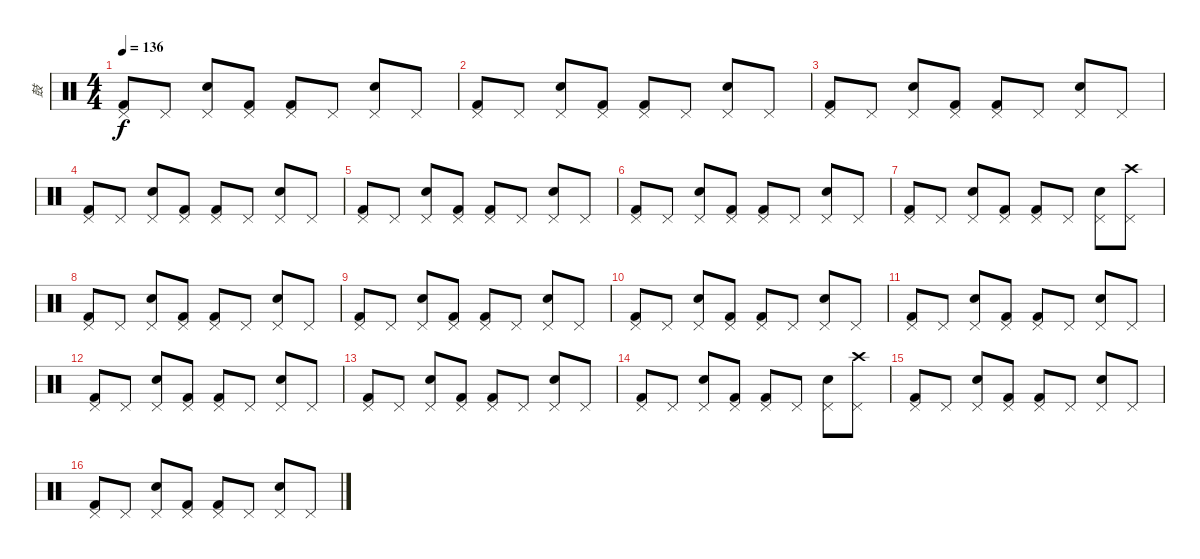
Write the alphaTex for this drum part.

\track ("鼓" "鼓") {instrument percussion}
\staff {score}
\articulation defaults
\ts (4 4)
\tempo 136
\clef neutral
\ks c
("Pedal Hi-Hat (hit)" "Kick (hit) 2").8{dy f} "Pedal Hi-Hat (hit)".8 ("Pedal Hi-Hat (hit)" "Electric Snare (hit)").8 ("Pedal Hi-Hat (hit)" "Kick (hit) 2").8 ("Pedal Hi-Hat (hit)" "Kick (hit) 2").8 "Pedal Hi-Hat (hit)".8 ("Pedal Hi-Hat (hit)" "Electric Snare (hit)").8 "Pedal Hi-Hat (hit)".8 |
("Pedal Hi-Hat (hit)" "Kick (hit) 2").8 "Pedal Hi-Hat (hit)".8 ("Pedal Hi-Hat (hit)" "Electric Snare (hit)").8 ("Pedal Hi-Hat (hit)" "Kick (hit) 2").8 ("Pedal Hi-Hat (hit)" "Kick (hit) 2").8 "Pedal Hi-Hat (hit)".8 ("Pedal Hi-Hat (hit)" "Electric Snare (hit)").8 "Pedal Hi-Hat (hit)".8 |
("Pedal Hi-Hat (hit)" "Kick (hit) 2").8 "Pedal Hi-Hat (hit)".8 ("Pedal Hi-Hat (hit)" "Electric Snare (hit)").8 ("Pedal Hi-Hat (hit)" "Kick (hit) 2").8 ("Pedal Hi-Hat (hit)" "Kick (hit) 2").8 "Pedal Hi-Hat (hit)".8 ("Pedal Hi-Hat (hit)" "Electric Snare (hit)").8 "Pedal Hi-Hat (hit)".8 |
("Pedal Hi-Hat (hit)" "Kick (hit) 2").8 "Pedal Hi-Hat (hit)".8 ("Pedal Hi-Hat (hit)" "Electric Snare (hit)").8 ("Pedal Hi-Hat (hit)" "Kick (hit) 2").8 ("Pedal Hi-Hat (hit)" "Kick (hit) 2").8 "Pedal Hi-Hat (hit)".8 ("Pedal Hi-Hat (hit)" "Electric Snare (hit)").8 "Pedal Hi-Hat (hit)".8 |
("Pedal Hi-Hat (hit)" "Kick (hit) 2").8 "Pedal Hi-Hat (hit)".8 ("Pedal Hi-Hat (hit)" "Electric Snare (hit)").8 ("Pedal Hi-Hat (hit)" "Kick (hit) 2").8 ("Pedal Hi-Hat (hit)" "Kick (hit) 2").8 "Pedal Hi-Hat (hit)".8 ("Pedal Hi-Hat (hit)" "Electric Snare (hit)").8 "Pedal Hi-Hat (hit)".8 |
("Pedal Hi-Hat (hit)" "Kick (hit) 2").8 "Pedal Hi-Hat (hit)".8 ("Pedal Hi-Hat (hit)" "Electric Snare (hit)").8 ("Pedal Hi-Hat (hit)" "Kick (hit) 2").8 ("Pedal Hi-Hat (hit)" "Kick (hit) 2").8 "Pedal Hi-Hat (hit)".8 ("Pedal Hi-Hat (hit)" "Electric Snare (hit)").8 "Pedal Hi-Hat (hit)".8 |
("Pedal Hi-Hat (hit)" "Kick (hit) 2").8 "Pedal Hi-Hat (hit)".8 ("Pedal Hi-Hat (hit)" "Electric Snare (hit)").8 ("Pedal Hi-Hat (hit)" "Kick (hit) 2").8 ("Pedal Hi-Hat (hit)" "Kick (hit) 2").8 "Pedal Hi-Hat (hit)".8 ("Pedal Hi-Hat (hit)" "Electric Snare (hit)").8 ("Pedal Hi-Hat (hit)" "Crash high (hit)").8 |
("Pedal Hi-Hat (hit)" "Kick (hit) 2").8 "Pedal Hi-Hat (hit)".8 ("Pedal Hi-Hat (hit)" "Electric Snare (hit)").8 ("Pedal Hi-Hat (hit)" "Kick (hit) 2").8 ("Pedal Hi-Hat (hit)" "Kick (hit) 2").8 "Pedal Hi-Hat (hit)".8 ("Pedal Hi-Hat (hit)" "Electric Snare (hit)").8 "Pedal Hi-Hat (hit)".8 |
("Pedal Hi-Hat (hit)" "Kick (hit) 2").8 "Pedal Hi-Hat (hit)".8 ("Pedal Hi-Hat (hit)" "Electric Snare (hit)").8 ("Pedal Hi-Hat (hit)" "Kick (hit) 2").8 ("Pedal Hi-Hat (hit)" "Kick (hit) 2").8 "Pedal Hi-Hat (hit)".8 ("Pedal Hi-Hat (hit)" "Electric Snare (hit)").8 "Pedal Hi-Hat (hit)".8 |
("Pedal Hi-Hat (hit)" "Kick (hit) 2").8 "Pedal Hi-Hat (hit)".8 ("Pedal Hi-Hat (hit)" "Electric Snare (hit)").8 ("Pedal Hi-Hat (hit)" "Kick (hit) 2").8 ("Pedal Hi-Hat (hit)" "Kick (hit) 2").8 "Pedal Hi-Hat (hit)".8 ("Pedal Hi-Hat (hit)" "Electric Snare (hit)").8 "Pedal Hi-Hat (hit)".8 |
("Pedal Hi-Hat (hit)" "Kick (hit) 2").8 "Pedal Hi-Hat (hit)".8 ("Pedal Hi-Hat (hit)" "Electric Snare (hit)").8 ("Pedal Hi-Hat (hit)" "Kick (hit) 2").8 ("Pedal Hi-Hat (hit)" "Kick (hit) 2").8 "Pedal Hi-Hat (hit)".8 ("Pedal Hi-Hat (hit)" "Electric Snare (hit)").8 "Pedal Hi-Hat (hit)".8 |
("Pedal Hi-Hat (hit)" "Kick (hit) 2").8 "Pedal Hi-Hat (hit)".8 ("Pedal Hi-Hat (hit)" "Electric Snare (hit)").8 ("Pedal Hi-Hat (hit)" "Kick (hit) 2").8 ("Pedal Hi-Hat (hit)" "Kick (hit) 2").8 "Pedal Hi-Hat (hit)".8 ("Pedal Hi-Hat (hit)" "Electric Snare (hit)").8 "Pedal Hi-Hat (hit)".8 |
("Pedal Hi-Hat (hit)" "Kick (hit) 2").8 "Pedal Hi-Hat (hit)".8 ("Pedal Hi-Hat (hit)" "Electric Snare (hit)").8 ("Pedal Hi-Hat (hit)" "Kick (hit) 2").8 ("Pedal Hi-Hat (hit)" "Kick (hit) 2").8 "Pedal Hi-Hat (hit)".8 ("Pedal Hi-Hat (hit)" "Electric Snare (hit)").8 "Pedal Hi-Hat (hit)".8 |
("Pedal Hi-Hat (hit)" "Kick (hit) 2").8 "Pedal Hi-Hat (hit)".8 ("Pedal Hi-Hat (hit)" "Electric Snare (hit)").8 ("Pedal Hi-Hat (hit)" "Kick (hit) 2").8 ("Pedal Hi-Hat (hit)" "Kick (hit) 2").8 "Pedal Hi-Hat (hit)".8 ("Pedal Hi-Hat (hit)" "Electric Snare (hit)").8 ("Pedal Hi-Hat (hit)" "Crash high (hit)").8 |
("Pedal Hi-Hat (hit)" "Kick (hit) 2").8 "Pedal Hi-Hat (hit)".8 ("Pedal Hi-Hat (hit)" "Electric Snare (hit)").8 ("Pedal Hi-Hat (hit)" "Kick (hit) 2").8 ("Pedal Hi-Hat (hit)" "Kick (hit) 2").8 "Pedal Hi-Hat (hit)".8 ("Pedal Hi-Hat (hit)" "Electric Snare (hit)").8 "Pedal Hi-Hat (hit)".8 |
("Pedal Hi-Hat (hit)" "Kick (hit) 2").8 "Pedal Hi-Hat (hit)".8 ("Pedal Hi-Hat (hit)" "Electric Snare (hit)").8 ("Pedal Hi-Hat (hit)" "Kick (hit) 2").8 ("Pedal Hi-Hat (hit)" "Kick (hit) 2").8 "Pedal Hi-Hat (hit)".8 ("Pedal Hi-Hat (hit)" "Electric Snare (hit)").8 "Pedal Hi-Hat (hit)".8
